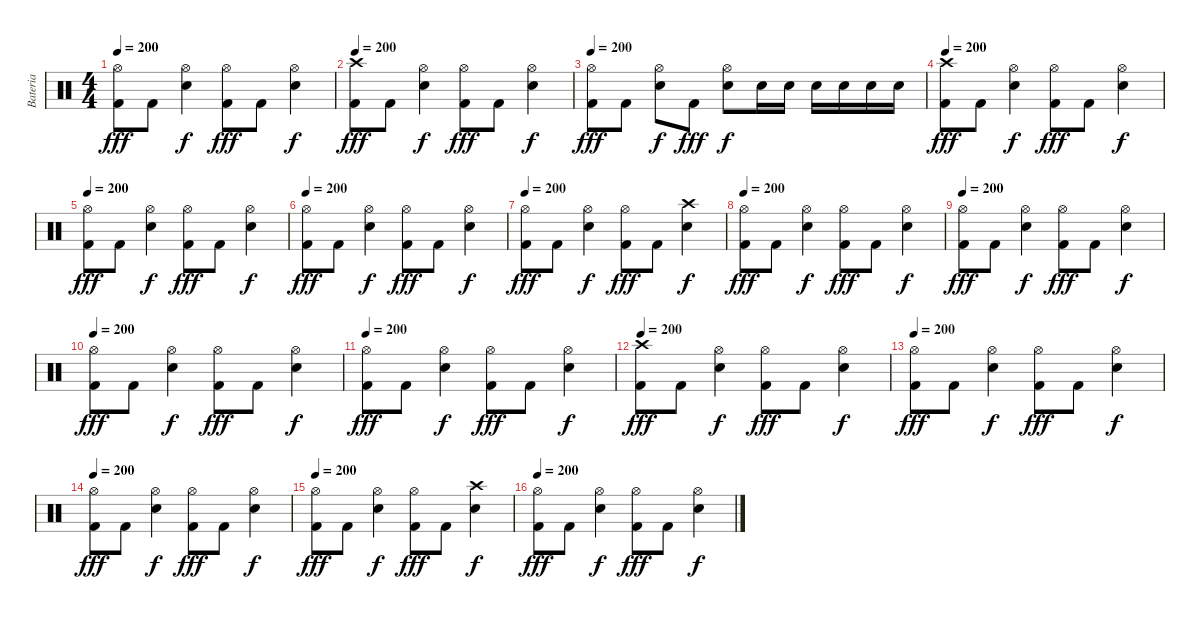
\track ("Bateria" "Bateria") {instrument percussion}
\staff {score}
\articulation defaults
\ts (4 4)
\tempo 200
\clef neutral
\ks c
("Hi-Hat (open)" "Kick (hit) 2").8{dy fff} "Kick (hit) 2".8 ("Hi-Hat (open)" "Electric Snare (hit)").4{dy f} ("Hi-Hat (open)" "Kick (hit) 2").8{dy fff} "Kick (hit) 2".8 ("Hi-Hat (open)" "Electric Snare (hit)").4{dy f} |
\tempo 200
("Crash high (hit)" "Kick (hit) 2").8{dy fff} "Kick (hit) 2".8 ("Hi-Hat (open)" "Electric Snare (hit)").4{dy f} ("Hi-Hat (open)" "Kick (hit) 2").8{dy fff} "Kick (hit) 2".8 ("Hi-Hat (open)" "Electric Snare (hit)").4{dy f} |
\tempo 200
("Hi-Hat (open)" "Kick (hit) 2").8{dy fff} "Kick (hit) 2".8 ("Hi-Hat (open)" "Electric Snare (hit)").8{dy f} "Kick (hit) 2".8{dy fff} ("Hi-Hat (open)" "Electric Snare (hit)").8{dy f} "Electric Snare (hit)".16 "Electric Snare (hit)".16 "Electric Snare (hit)".16 "Electric Snare (hit)".16 "Electric Snare (hit)".16 "Electric Snare (hit)".16 |
\tempo 200
("Crash high (hit)" "Kick (hit) 2").8{dy fff} "Kick (hit) 2".8 ("Hi-Hat (open)" "Electric Snare (hit)").4{dy f} ("Hi-Hat (open)" "Kick (hit) 2").8{dy fff} "Kick (hit) 2".8 ("Hi-Hat (open)" "Electric Snare (hit)").4{dy f} |
\tempo 200
("Hi-Hat (open)" "Kick (hit) 2").8{dy fff} "Kick (hit) 2".8 ("Hi-Hat (open)" "Electric Snare (hit)").4{dy f} ("Hi-Hat (open)" "Kick (hit) 2").8{dy fff} "Kick (hit) 2".8 ("Hi-Hat (open)" "Electric Snare (hit)").4{dy f} |
\tempo 200
("Hi-Hat (open)" "Kick (hit) 2").8{dy fff} "Kick (hit) 2".8 ("Hi-Hat (open)" "Electric Snare (hit)").4{dy f} ("Hi-Hat (open)" "Kick (hit) 2").8{dy fff} "Kick (hit) 2".8 ("Hi-Hat (open)" "Electric Snare (hit)").4{dy f} |
\tempo 200
("Hi-Hat (open)" "Kick (hit) 2").8{dy fff} "Kick (hit) 2".8 ("Hi-Hat (open)" "Electric Snare (hit)").4{dy f} ("Hi-Hat (open)" "Kick (hit) 2").8{dy fff} "Kick (hit) 2".8 ("Crash high (hit)" "Electric Snare (hit)").4{dy f} |
\tempo 200
("Hi-Hat (open)" "Kick (hit) 2").8{dy fff} "Kick (hit) 2".8 ("Hi-Hat (open)" "Electric Snare (hit)").4{dy f} ("Hi-Hat (open)" "Kick (hit) 2").8{dy fff} "Kick (hit) 2".8 ("Hi-Hat (open)" "Electric Snare (hit)").4{dy f} |
\tempo 200
("Hi-Hat (open)" "Kick (hit) 2").8{dy fff} "Kick (hit) 2".8 ("Hi-Hat (open)" "Electric Snare (hit)").4{dy f} ("Hi-Hat (open)" "Kick (hit) 2").8{dy fff} "Kick (hit) 2".8 ("Hi-Hat (open)" "Electric Snare (hit)").4{dy f} |
\tempo 200
("Hi-Hat (open)" "Kick (hit) 2").8{dy fff} "Kick (hit) 2".8 ("Hi-Hat (open)" "Electric Snare (hit)").4{dy f} ("Hi-Hat (open)" "Kick (hit) 2").8{dy fff} "Kick (hit) 2".8 ("Hi-Hat (open)" "Electric Snare (hit)").4{dy f} |
\tempo 200
("Hi-Hat (open)" "Kick (hit) 2").8{dy fff} "Kick (hit) 2".8 ("Hi-Hat (open)" "Electric Snare (hit)").4{dy f} ("Hi-Hat (open)" "Kick (hit) 2").8{dy fff} "Kick (hit) 2".8 ("Hi-Hat (open)" "Electric Snare (hit)").4{dy f} |
\tempo 200
("Crash high (hit)" "Kick (hit) 2").8{dy fff} "Kick (hit) 2".8 ("Hi-Hat (open)" "Electric Snare (hit)").4{dy f} ("Hi-Hat (open)" "Kick (hit) 2").8{dy fff} "Kick (hit) 2".8 ("Hi-Hat (open)" "Electric Snare (hit)").4{dy f} |
\tempo 200
("Hi-Hat (open)" "Kick (hit) 2").8{dy fff} "Kick (hit) 2".8 ("Hi-Hat (open)" "Electric Snare (hit)").4{dy f} ("Hi-Hat (open)" "Kick (hit) 2").8{dy fff} "Kick (hit) 2".8 ("Hi-Hat (open)" "Electric Snare (hit)").4{dy f} |
\tempo 200
("Hi-Hat (open)" "Kick (hit) 2").8{dy fff} "Kick (hit) 2".8 ("Hi-Hat (open)" "Electric Snare (hit)").4{dy f} ("Hi-Hat (open)" "Kick (hit) 2").8{dy fff} "Kick (hit) 2".8 ("Hi-Hat (open)" "Electric Snare (hit)").4{dy f} |
\tempo 200
("Hi-Hat (open)" "Kick (hit) 2").8{dy fff} "Kick (hit) 2".8 ("Hi-Hat (open)" "Electric Snare (hit)").4{dy f} ("Hi-Hat (open)" "Kick (hit) 2").8{dy fff} "Kick (hit) 2".8 ("Crash high (hit)" "Electric Snare (hit)").4{dy f} |
\tempo 200
("Hi-Hat (open)" "Kick (hit) 2").8{dy fff} "Kick (hit) 2".8 ("Hi-Hat (open)" "Electric Snare (hit)").4{dy f} ("Hi-Hat (open)" "Kick (hit) 2").8{dy fff} "Kick (hit) 2".8 ("Hi-Hat (open)" "Electric Snare (hit)").4{dy f}
